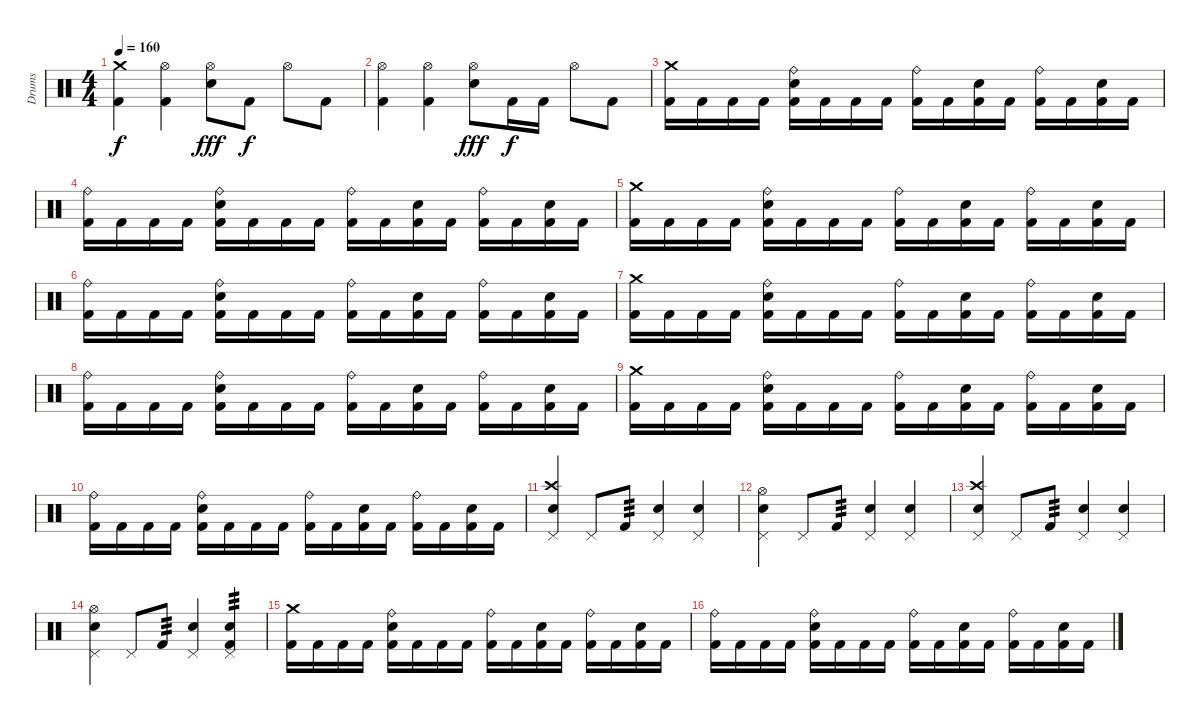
\track ("Drums" "Drums") {instrument percussion}
\staff {score}
\articulation defaults
\ts (4 4)
\tempo 160
\clef neutral
\ks c
("Crash medium (hit)" "Kick (hit) 2").4{dy f} ("Hi-Hat (open)" "Kick (hit) 2").4 ("Hi-Hat (open)" "Snare (hit) 2").8{dy fff} "Kick (hit) 2".8{dy f} "Hi-Hat (open)".8 "Kick (hit) 2".8 |
("Hi-Hat (open)" "Kick (hit) 2").4 ("Hi-Hat (open)" "Kick (hit) 2").4 ("Hi-Hat (open)" "Snare (hit) 2").8{dy fff} "Kick (hit) 2".16{dy f} "Kick (hit) 2".16 "Hi-Hat (open)".8 "Kick (hit) 2".8 |
("Crash medium (hit)" "Kick (hit) 2").16 "Kick (hit) 2".16 "Kick (hit) 2".16 "Kick (hit) 2".16 ("Ride (bell)" "Snare (hit) 2" "Kick (hit) 2").16 "Kick (hit) 2".16 "Kick (hit) 2".16 "Kick (hit) 2".16 ("Ride (bell)" "Kick (hit) 2").16 "Kick (hit) 2".16 ("Snare (hit) 2" "Kick (hit) 2").16 "Kick (hit) 2".16 ("Ride (bell)" "Kick (hit) 2").16 "Kick (hit) 2".16 ("Snare (hit) 2" "Kick (hit) 2").16 "Kick (hit) 2".16 |
("Ride (bell)" "Kick (hit) 2").16 "Kick (hit) 2".16 "Kick (hit) 2".16 "Kick (hit) 2".16 ("Ride (bell)" "Snare (hit) 2" "Kick (hit) 2").16 "Kick (hit) 2".16 "Kick (hit) 2".16 "Kick (hit) 2".16 ("Ride (bell)" "Kick (hit) 2").16 "Kick (hit) 2".16 ("Snare (hit) 2" "Kick (hit) 2").16 "Kick (hit) 2".16 ("Ride (bell)" "Kick (hit) 2").16 "Kick (hit) 2".16 ("Snare (hit) 2" "Kick (hit) 2").16 "Kick (hit) 2".16 |
("Crash medium (hit)" "Kick (hit) 2").16 "Kick (hit) 2".16 "Kick (hit) 2".16 "Kick (hit) 2".16 ("Ride (bell)" "Snare (hit) 2" "Kick (hit) 2").16 "Kick (hit) 2".16 "Kick (hit) 2".16 "Kick (hit) 2".16 ("Ride (bell)" "Kick (hit) 2").16 "Kick (hit) 2".16 ("Snare (hit) 2" "Kick (hit) 2").16 "Kick (hit) 2".16 ("Ride (bell)" "Kick (hit) 2").16 "Kick (hit) 2".16 ("Snare (hit) 2" "Kick (hit) 2").16 "Kick (hit) 2".16 |
("Ride (bell)" "Kick (hit) 2").16 "Kick (hit) 2".16 "Kick (hit) 2".16 "Kick (hit) 2".16 ("Ride (bell)" "Snare (hit) 2" "Kick (hit) 2").16 "Kick (hit) 2".16 "Kick (hit) 2".16 "Kick (hit) 2".16 ("Ride (bell)" "Kick (hit) 2").16 "Kick (hit) 2".16 ("Snare (hit) 2" "Kick (hit) 2").16 "Kick (hit) 2".16 ("Ride (bell)" "Kick (hit) 2").16 "Kick (hit) 2".16 ("Snare (hit) 2" "Kick (hit) 2").16 "Kick (hit) 2".16 |
("Crash medium (hit)" "Kick (hit) 2").16 "Kick (hit) 2".16 "Kick (hit) 2".16 "Kick (hit) 2".16 ("Ride (bell)" "Snare (hit) 2" "Kick (hit) 2").16 "Kick (hit) 2".16 "Kick (hit) 2".16 "Kick (hit) 2".16 ("Ride (bell)" "Kick (hit) 2").16 "Kick (hit) 2".16 ("Snare (hit) 2" "Kick (hit) 2").16 "Kick (hit) 2".16 ("Ride (bell)" "Kick (hit) 2").16 "Kick (hit) 2".16 ("Snare (hit) 2" "Kick (hit) 2").16 "Kick (hit) 2".16 |
("Ride (bell)" "Kick (hit) 2").16 "Kick (hit) 2".16 "Kick (hit) 2".16 "Kick (hit) 2".16 ("Ride (bell)" "Snare (hit) 2" "Kick (hit) 2").16 "Kick (hit) 2".16 "Kick (hit) 2".16 "Kick (hit) 2".16 ("Ride (bell)" "Kick (hit) 2").16 "Kick (hit) 2".16 ("Snare (hit) 2" "Kick (hit) 2").16 "Kick (hit) 2".16 ("Ride (bell)" "Kick (hit) 2").16 "Kick (hit) 2".16 ("Snare (hit) 2" "Kick (hit) 2").16 "Kick (hit) 2".16 |
("Crash medium (hit)" "Kick (hit) 2").16 "Kick (hit) 2".16 "Kick (hit) 2".16 "Kick (hit) 2".16 ("Ride (bell)" "Snare (hit) 2" "Kick (hit) 2").16 "Kick (hit) 2".16 "Kick (hit) 2".16 "Kick (hit) 2".16 ("Ride (bell)" "Kick (hit) 2").16 "Kick (hit) 2".16 ("Snare (hit) 2" "Kick (hit) 2").16 "Kick (hit) 2".16 ("Ride (bell)" "Kick (hit) 2").16 "Kick (hit) 2".16 ("Snare (hit) 2" "Kick (hit) 2").16 "Kick (hit) 2".16 |
("Ride (bell)" "Kick (hit) 2").16 "Kick (hit) 2".16 "Kick (hit) 2".16 "Kick (hit) 2".16 ("Ride (bell)" "Snare (hit) 2" "Kick (hit) 2").16 "Kick (hit) 2".16 "Kick (hit) 2".16 "Kick (hit) 2".16 ("Ride (bell)" "Kick (hit) 2").16 "Kick (hit) 2".16 ("Snare (hit) 2" "Kick (hit) 2").16 "Kick (hit) 2".16 ("Ride (bell)" "Kick (hit) 2").16 "Kick (hit) 2".16 ("Snare (hit) 2" "Kick (hit) 2").16 "Kick (hit) 2".16 |
("Crash high (hit)" "Pedal Hi-Hat (hit)" "Snare (hit) 2").4 "Pedal Hi-Hat (hit)".8 "Kick (hit) 2".8{tp 3} ("Pedal Hi-Hat (hit)" "Snare (hit) 2").4 ("Pedal Hi-Hat (hit)" "Snare (hit) 2").4 |
("Hi-Hat (open)" "Pedal Hi-Hat (hit)" "Snare (hit) 2").4 "Pedal Hi-Hat (hit)".8 "Kick (hit) 2".8{tp 3} ("Pedal Hi-Hat (hit)" "Snare (hit) 2").4 ("Pedal Hi-Hat (hit)" "Snare (hit) 2").4 |
("Crash high (hit)" "Pedal Hi-Hat (hit)" "Snare (hit) 2").4 "Pedal Hi-Hat (hit)".8 "Kick (hit) 2".8{tp 3} ("Pedal Hi-Hat (hit)" "Snare (hit) 2").4 ("Pedal Hi-Hat (hit)" "Snare (hit) 2").4 |
("Hi-Hat (open)" "Pedal Hi-Hat (hit)" "Snare (hit) 2").4 "Pedal Hi-Hat (hit)".8 "Kick (hit) 2".8{tp 3} ("Pedal Hi-Hat (hit)" "Snare (hit) 2").4 ("Pedal Hi-Hat (hit)" "Kick (hit) 2" "Snare (hit) 2").4{tp 3} |
("Crash medium (hit)" "Kick (hit) 2").16 "Kick (hit) 2".16 "Kick (hit) 2".16 "Kick (hit) 2".16 ("Ride (bell)" "Snare (hit) 2" "Kick (hit) 2").16 "Kick (hit) 2".16 "Kick (hit) 2".16 "Kick (hit) 2".16 ("Ride (bell)" "Kick (hit) 2").16 "Kick (hit) 2".16 ("Snare (hit) 2" "Kick (hit) 2").16 "Kick (hit) 2".16 ("Ride (bell)" "Kick (hit) 2").16 "Kick (hit) 2".16 ("Snare (hit) 2" "Kick (hit) 2").16 "Kick (hit) 2".16 |
("Ride (bell)" "Kick (hit) 2").16 "Kick (hit) 2".16 "Kick (hit) 2".16 "Kick (hit) 2".16 ("Ride (bell)" "Snare (hit) 2" "Kick (hit) 2").16 "Kick (hit) 2".16 "Kick (hit) 2".16 "Kick (hit) 2".16 ("Ride (bell)" "Kick (hit) 2").16 "Kick (hit) 2".16 ("Snare (hit) 2" "Kick (hit) 2").16 "Kick (hit) 2".16 ("Ride (bell)" "Kick (hit) 2").16 "Kick (hit) 2".16 ("Snare (hit) 2" "Kick (hit) 2").16 "Kick (hit) 2".16
